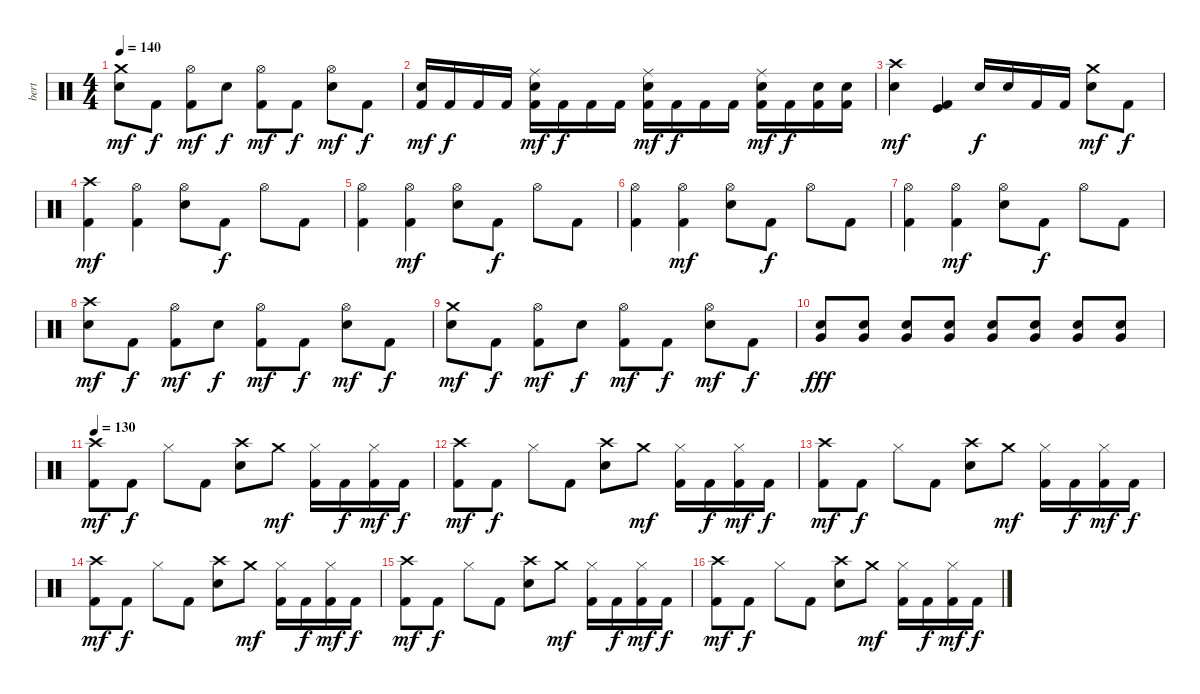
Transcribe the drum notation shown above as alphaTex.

\track ("bert" "bert") {instrument percussion}
\staff {score}
\articulation defaults
\ts (4 4)
\tempo 140
\clef neutral
\ks c
("Crash medium (hit)" "Snare (hit) 2").8{dy mf} "Kick (hit) 2".8{dy f} ("Hi-Hat (open)" "Kick (hit) 2").8{dy mf} "Snare (hit) 2".8{dy f} ("Hi-Hat (open)" "Kick (hit) 2").8{dy mf} "Kick (hit) 2".8{dy f} ("Hi-Hat (open)" "Snare (hit) 2").8{dy mf} "Kick (hit) 2".8{dy f} |
("Snare (hit) 2" "Kick (hit) 2").16{dy mf} "Kick (hit) 2".16{dy f} "Kick (hit) 2".16 "Kick (hit) 2".16 ("Ride (middle)" "Snare (hit) 2" "Kick (hit) 2").16{dy mf} "Kick (hit) 2".16{dy f} "Kick (hit) 2".16 "Kick (hit) 2".16 ("Ride (middle)" "Snare (hit) 2" "Kick (hit) 2").16{dy mf} "Kick (hit) 2".16{dy f} "Kick (hit) 2".16 "Kick (hit) 2".16 ("Ride (middle)" "Snare (hit) 2" "Kick (hit) 2").16{dy mf} "Kick (hit) 2".16{dy f} ("Snare (hit) 2" "Kick (hit) 2").16 ("Snare (hit) 2" "Kick (hit) 2").16 |
("Crash high (hit)" "Snare (hit) 2").4{dy mf} ("Kick (hit)" "Kick (hit) 2").4 "Snare (hit) 2".16{dy f} "Snare (hit) 2".16 "Kick (hit) 2".16 "Kick (hit) 2".16 ("Crash medium (hit)" "Snare (hit) 2").8{dy mf} "Kick (hit) 2".8{dy f} |
("Crash high (hit)" "Kick (hit) 2").4{dy mf} ("Hi-Hat (open)" "Kick (hit) 2").4 ("Hi-Hat (open)" "Snare (hit) 2").8 "Kick (hit) 2".8{dy f} "Hi-Hat (open)".8 "Kick (hit) 2".8 |
("Hi-Hat (open)" "Kick (hit) 2").4 ("Hi-Hat (open)" "Kick (hit) 2").4{dy mf} ("Hi-Hat (open)" "Snare (hit) 2").8 "Kick (hit) 2".8{dy f} "Hi-Hat (open)".8 "Kick (hit) 2".8 |
("Hi-Hat (open)" "Kick (hit) 2").4 ("Hi-Hat (open)" "Kick (hit) 2").4{dy mf} ("Hi-Hat (open)" "Snare (hit) 2").8 "Kick (hit) 2".8{dy f} "Hi-Hat (open)".8 "Kick (hit) 2".8 |
("Hi-Hat (open)" "Kick (hit) 2").4 ("Hi-Hat (open)" "Kick (hit) 2").4{dy mf} ("Hi-Hat (open)" "Snare (hit) 2").8 "Kick (hit) 2".8{dy f} "Hi-Hat (open)".8 "Kick (hit) 2".8 |
("Crash high (hit)" "Snare (hit) 2").8{dy mf} "Kick (hit) 2".8{dy f} ("Hi-Hat (open)" "Kick (hit) 2").8{dy mf} "Snare (hit) 2".8{dy f} ("Hi-Hat (open)" "Kick (hit) 2").8{dy mf} "Kick (hit) 2".8{dy f} ("Hi-Hat (open)" "Snare (hit) 2").8{dy mf} "Kick (hit) 2".8{dy f} |
("Crash medium (hit)" "Snare (hit) 2").8{dy mf} "Kick (hit) 2".8{dy f} ("Hi-Hat (open)" "Kick (hit) 2").8{dy mf} "Snare (hit) 2".8{dy f} ("Hi-Hat (open)" "Kick (hit) 2").8{dy mf} "Kick (hit) 2".8{dy f} ("Hi-Hat (open)" "Snare (hit) 2").8{dy mf} "Kick (hit) 2".8{dy f} |
("Snare (hit) 2" "Very Low Tom (hit)").8{dy fff} ("Snare (hit) 2" "Very Low Tom (hit)").8 ("Snare (hit) 2" "Very Low Tom (hit)").8 ("Snare (hit) 2" "Very Low Tom (hit)").8 ("Snare (hit) 2" "Very Low Tom (hit)").8 ("Snare (hit) 2" "Very Low Tom (hit)").8 ("Snare (hit) 2" "Very Low Tom (hit)").8 ("Snare (hit) 2" "Very Low Tom (hit)").8 |
\tempo 130
("Crash high (hit)" "Kick (hit) 2").8{dy mf} "Kick (hit) 2".8{dy f} "Hi-Hat (closed)".8 "Kick (hit) 2".8 ("Crash high (hit)" "Snare (hit) 2").8 "Crash medium (hit)".8{dy mf} ("Hi-Hat (closed)" "Kick (hit) 2").16 "Kick (hit) 2".16{dy f} ("Hi-Hat (closed)" "Kick (hit) 2").16{dy mf} "Kick (hit) 2".16{dy f} |
("Crash high (hit)" "Kick (hit) 2").8{dy mf} "Kick (hit) 2".8{dy f} "Hi-Hat (closed)".8 "Kick (hit) 2".8 ("Crash high (hit)" "Snare (hit) 2").8 "Crash medium (hit)".8{dy mf} ("Hi-Hat (closed)" "Kick (hit) 2").16 "Kick (hit) 2".16{dy f} ("Hi-Hat (closed)" "Kick (hit) 2").16{dy mf} "Kick (hit) 2".16{dy f} |
("Crash high (hit)" "Kick (hit) 2").8{dy mf} "Kick (hit) 2".8{dy f} "Hi-Hat (closed)".8 "Kick (hit) 2".8 ("Crash high (hit)" "Snare (hit) 2").8 "Crash medium (hit)".8{dy mf} ("Hi-Hat (closed)" "Kick (hit) 2").16 "Kick (hit) 2".16{dy f} ("Hi-Hat (closed)" "Kick (hit) 2").16{dy mf} "Kick (hit) 2".16{dy f} |
("Crash high (hit)" "Kick (hit) 2").8{dy mf} "Kick (hit) 2".8{dy f} "Hi-Hat (closed)".8 "Kick (hit) 2".8 ("Crash high (hit)" "Snare (hit) 2").8 "Crash medium (hit)".8{dy mf} ("Hi-Hat (closed)" "Kick (hit) 2").16 "Kick (hit) 2".16{dy f} ("Hi-Hat (closed)" "Kick (hit) 2").16{dy mf} "Kick (hit) 2".16{dy f} |
("Crash high (hit)" "Kick (hit) 2").8{dy mf} "Kick (hit) 2".8{dy f} "Hi-Hat (closed)".8 "Kick (hit) 2".8 ("Crash high (hit)" "Snare (hit) 2").8 "Crash medium (hit)".8{dy mf} ("Hi-Hat (closed)" "Kick (hit) 2").16 "Kick (hit) 2".16{dy f} ("Hi-Hat (closed)" "Kick (hit) 2").16{dy mf} "Kick (hit) 2".16{dy f} |
("Crash high (hit)" "Kick (hit) 2").8{dy mf} "Kick (hit) 2".8{dy f} "Hi-Hat (closed)".8 "Kick (hit) 2".8 ("Crash high (hit)" "Snare (hit) 2").8 "Crash medium (hit)".8{dy mf} ("Hi-Hat (closed)" "Kick (hit) 2").16 "Kick (hit) 2".16{dy f} ("Hi-Hat (closed)" "Kick (hit) 2").16{dy mf} "Kick (hit) 2".16{dy f}
